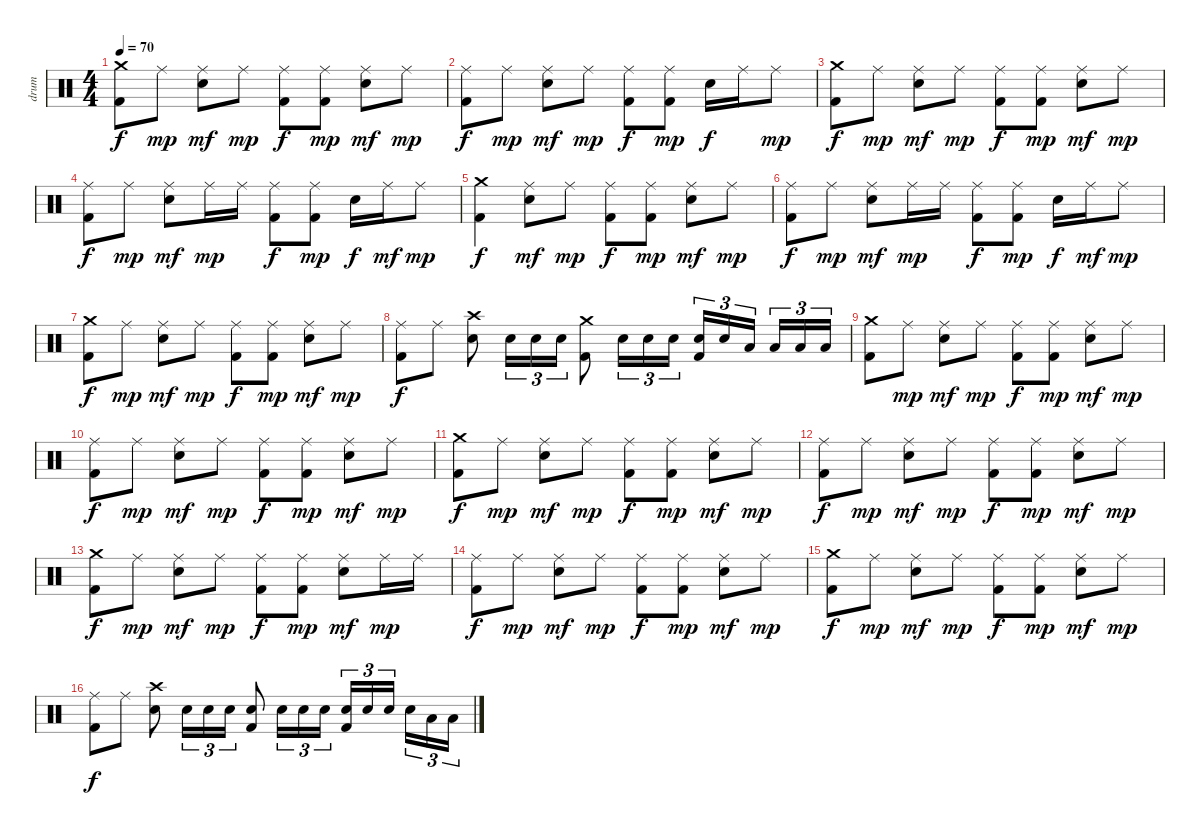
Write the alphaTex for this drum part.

\track ("drum" "drum") {instrument percussion}
\staff {score}
\articulation defaults
\ts (4 4)
\tempo 70
\clef neutral
\ks c
("Crash medium (hit)" "Kick (hit) 2").8{dy f} "Ride (middle)".8{dy mp} ("Ride (middle)" "Electric Snare (hit)").8{dy mf} "Ride (middle)".8{dy mp} ("Ride (middle)" "Kick (hit) 2").8{dy f} ("Ride (middle)" "Kick (hit) 2").8{dy mp} ("Ride (middle)" "Electric Snare (hit)").8{dy mf} "Ride (middle)".8{dy mp} |
("Ride (middle)" "Kick (hit) 2").8{dy f} "Ride (middle)".8{dy mp} ("Ride (middle)" "Electric Snare (hit)").8{dy mf} "Ride (middle)".8{dy mp} ("Ride (middle)" "Kick (hit) 2").8{dy f} ("Ride (middle)" "Kick (hit) 2").8{dy mp} "Electric Snare (hit)".16{dy f} "Ride (middle)".16 "Ride (middle)".8{dy mp} |
("Crash medium (hit)" "Kick (hit) 2").8{dy f} "Ride (middle)".8{dy mp} ("Ride (middle)" "Electric Snare (hit)").8{dy mf} "Ride (middle)".8{dy mp} ("Ride (middle)" "Kick (hit) 2").8{dy f} ("Ride (middle)" "Kick (hit) 2").8{dy mp} ("Ride (middle)" "Electric Snare (hit)").8{dy mf} "Ride (middle)".8{dy mp} |
("Ride (middle)" "Kick (hit) 2").8{dy f} "Ride (middle)".8{dy mp} ("Ride (middle)" "Electric Snare (hit)").8{dy mf} "Ride (middle)".16{dy mp} "Ride (middle)".16 ("Ride (middle)" "Kick (hit) 2").8{dy f} ("Ride (middle)" "Kick (hit) 2").8{dy mp} "Electric Snare (hit)".16{dy f} "Ride (middle)".16{dy mf} "Ride (middle)".8{dy mp} |
("Crash medium (hit)" "Kick (hit) 2").4{dy f} ("Ride (middle)" "Electric Snare (hit)").8{dy mf} "Ride (middle)".8{dy mp} ("Ride (middle)" "Kick (hit) 2").8{dy f} ("Ride (middle)" "Kick (hit) 2").8{dy mp} ("Ride (middle)" "Electric Snare (hit)").8{dy mf} "Ride (middle)".8{dy mp} |
("Ride (middle)" "Kick (hit) 2").8{dy f} "Ride (middle)".8{dy mp} ("Ride (middle)" "Electric Snare (hit)").8{dy mf} "Ride (middle)".16{dy mp} "Ride (middle)".16 ("Ride (middle)" "Kick (hit) 2").8{dy f} ("Ride (middle)" "Kick (hit) 2").8{dy mp} "Electric Snare (hit)".16{dy f} "Ride (middle)".16{dy mf} "Ride (middle)".8{dy mp} |
("Crash medium (hit)" "Kick (hit) 2").8{dy f} "Ride (middle)".8{dy mp} ("Ride (middle)" "Electric Snare (hit)").8{dy mf} "Ride (middle)".8{dy mp} ("Ride (middle)" "Kick (hit) 2").8{dy f} ("Ride (middle)" "Kick (hit) 2").8{dy mp} ("Ride (middle)" "Electric Snare (hit)").8{dy mf} "Ride (middle)".8{dy mp} |
("Ride (middle)" "Kick (hit) 2").8{dy f} "Ride (middle)".8 ("Crash high (hit)" "Electric Snare (hit)").8 "Electric Snare (hit)".16{tu (3 2)} "Electric Snare (hit)".16{tu (3 2)} "Electric Snare (hit)".16{tu (3 2)} ("Crash medium (hit)" "Kick (hit) 2").8 "Electric Snare (hit)".16{tu (3 2)} "Electric Snare (hit)".16{tu (3 2)} "Electric Snare (hit)".16{tu (3 2)} ("Electric Snare (hit)" "Kick (hit) 2").16{tu (3 2)} "Electric Snare (hit)".16{tu (3 2)} "Low Tom (hit)".16{tu (3 2)} "Low Tom (hit)".16{tu (3 2)} "Low Tom (hit)".16{tu (3 2)} "Low Tom (hit)".16{tu (3 2)} |
("Crash medium (hit)" "Kick (hit) 2").8 "Ride (middle)".8{dy mp} ("Ride (middle)" "Electric Snare (hit)").8{dy mf} "Ride (middle)".8{dy mp} ("Ride (middle)" "Kick (hit) 2").8{dy f} ("Ride (middle)" "Kick (hit) 2").8{dy mp} ("Ride (middle)" "Electric Snare (hit)").8{dy mf} "Ride (middle)".8{dy mp} |
("Ride (middle)" "Kick (hit) 2").8{dy f} "Ride (middle)".8{dy mp} ("Ride (middle)" "Electric Snare (hit)").8{dy mf} "Ride (middle)".8{dy mp} ("Ride (middle)" "Kick (hit) 2").8{dy f} ("Ride (middle)" "Kick (hit) 2").8{dy mp} ("Ride (middle)" "Electric Snare (hit)").8{dy mf} "Ride (middle)".8{dy mp} |
("Crash medium (hit)" "Kick (hit) 2").8{dy f} "Ride (middle)".8{dy mp} ("Ride (middle)" "Electric Snare (hit)").8{dy mf} "Ride (middle)".8{dy mp} ("Ride (middle)" "Kick (hit) 2").8{dy f} ("Ride (middle)" "Kick (hit) 2").8{dy mp} ("Ride (middle)" "Electric Snare (hit)").8{dy mf} "Ride (middle)".8{dy mp} |
("Ride (middle)" "Kick (hit) 2").8{dy f} "Ride (middle)".8{dy mp} ("Ride (middle)" "Electric Snare (hit)").8{dy mf} "Ride (middle)".8{dy mp} ("Ride (middle)" "Kick (hit) 2").8{dy f} ("Ride (middle)" "Kick (hit) 2").8{dy mp} ("Ride (middle)" "Electric Snare (hit)").8{dy mf} "Ride (middle)".8{dy mp} |
("Crash medium (hit)" "Kick (hit) 2").8{dy f} "Ride (middle)".8{dy mp} ("Ride (middle)" "Electric Snare (hit)").8{dy mf} "Ride (middle)".8{dy mp} ("Ride (middle)" "Kick (hit) 2").8{dy f} ("Ride (middle)" "Kick (hit) 2").8{dy mp} ("Ride (middle)" "Electric Snare (hit)").8{dy mf} "Ride (middle)".16{dy mp} "Ride (middle)".16 |
("Ride (middle)" "Kick (hit) 2").8{dy f} "Ride (middle)".8{dy mp} ("Ride (middle)" "Electric Snare (hit)").8{dy mf} "Ride (middle)".8{dy mp} ("Ride (middle)" "Kick (hit) 2").8{dy f} ("Ride (middle)" "Kick (hit) 2").8{dy mp} ("Ride (middle)" "Electric Snare (hit)").8{dy mf} "Ride (middle)".8{dy mp} |
("Crash medium (hit)" "Kick (hit) 2").8{dy f} "Ride (middle)".8{dy mp} ("Ride (middle)" "Electric Snare (hit)").8{dy mf} "Ride (middle)".8{dy mp} ("Ride (middle)" "Kick (hit) 2").8{dy f} ("Ride (middle)" "Kick (hit) 2").8{dy mp} ("Ride (middle)" "Electric Snare (hit)").8{dy mf} "Ride (middle)".8{dy mp} |
("Ride (middle)" "Kick (hit) 2").8{dy f} "Ride (middle)".8 ("Crash high (hit)" "Electric Snare (hit)").8 "Electric Snare (hit)".16{tu (3 2)} "Electric Snare (hit)".16{tu (3 2)} "Electric Snare (hit)".16{tu (3 2)} ("Electric Snare (hit)" "Kick (hit) 2").8 "Electric Snare (hit)".16{tu (3 2)} "Electric Snare (hit)".16{tu (3 2)} "Electric Snare (hit)".16{tu (3 2)} ("Electric Snare (hit)" "Kick (hit) 2").16{tu (3 2)} "Electric Snare (hit)".16{tu (3 2)} "Electric Snare (hit)".16{tu (3 2)} "Electric Snare (hit)".16{tu (3 2)} "Low Tom (hit)".16{tu (3 2)} "Low Tom (hit)".16{tu (3 2)}
